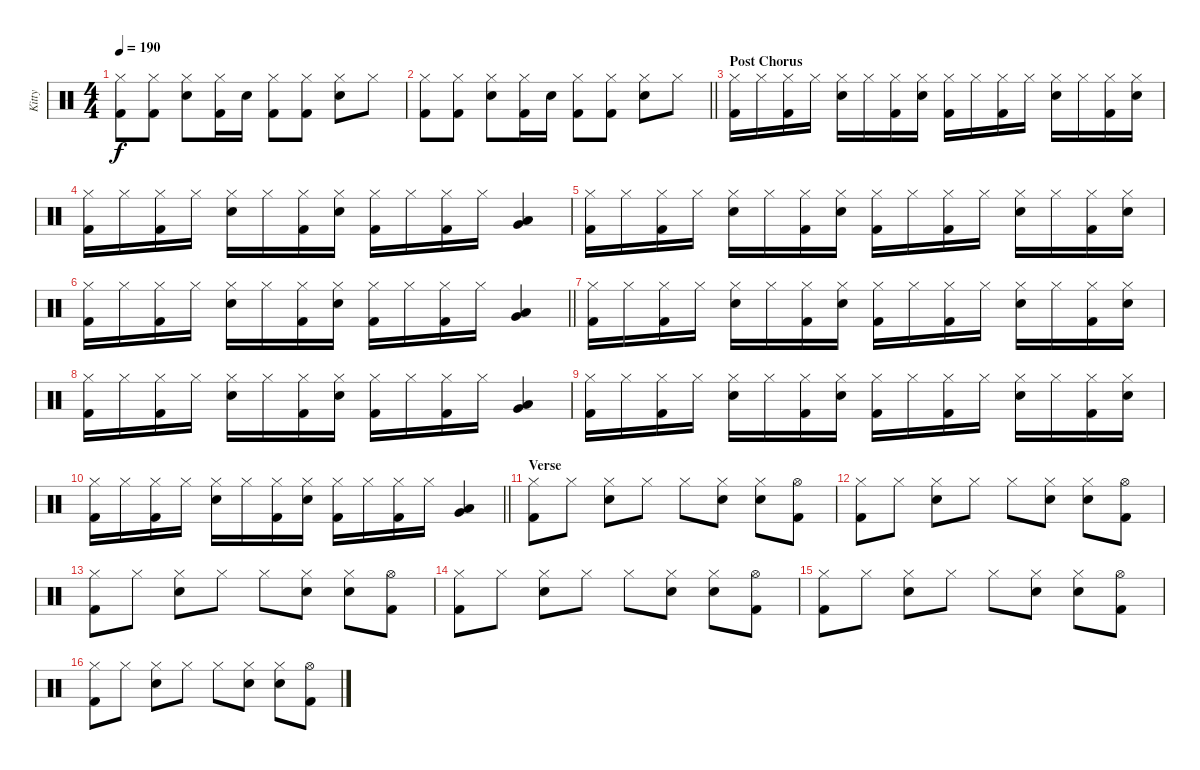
\track ("Kitty" "Kitty") {instrument percussion}
\staff {score}
\articulation defaults
\ts (4 4)
\tempo 190
\clef neutral
\ks c
("Hi-Hat (closed)" "Kick (hit) 2").8{dy f} ("Hi-Hat (closed)" "Kick (hit) 2").8 ("Hi-Hat (closed)" "Snare (hit) 2").8 ("Hi-Hat (closed)" "Kick (hit) 2").16 "Snare (hit) 2".16 ("Hi-Hat (closed)" "Kick (hit) 2").8 ("Hi-Hat (closed)" "Kick (hit) 2").8 ("Hi-Hat (closed)" "Snare (hit) 2").8 "Hi-Hat (closed)".8 |
\barLineRight lightlight
("Hi-Hat (closed)" "Kick (hit) 2").8 ("Hi-Hat (closed)" "Kick (hit) 2").8 ("Hi-Hat (closed)" "Snare (hit) 2").8 ("Hi-Hat (closed)" "Kick (hit) 2").16 "Snare (hit) 2".16 ("Hi-Hat (closed)" "Kick (hit) 2").8 ("Hi-Hat (closed)" "Kick (hit) 2").8 ("Hi-Hat (closed)" "Snare (hit) 2").8 "Hi-Hat (closed)".8 |
\section ("" "Post Chorus")
("Hi-Hat (closed)" "Kick (hit) 2").16 "Hi-Hat (closed)".16 ("Hi-Hat (closed)" "Kick (hit) 2").16 "Hi-Hat (closed)".16 ("Hi-Hat (closed)" "Snare (hit) 2").16 "Hi-Hat (closed)".16 ("Hi-Hat (closed)" "Kick (hit) 2").16 ("Hi-Hat (closed)" "Snare (hit) 2").16 ("Hi-Hat (closed)" "Kick (hit) 2").16 "Hi-Hat (closed)".16 ("Hi-Hat (closed)" "Kick (hit) 2").16 "Hi-Hat (closed)".16 ("Hi-Hat (closed)" "Snare (hit) 2").16 "Hi-Hat (closed)".16 ("Hi-Hat (closed)" "Kick (hit) 2").16 ("Hi-Hat (closed)" "Snare (hit) 2").16 |
("Hi-Hat (closed)" "Kick (hit) 2").16 "Hi-Hat (closed)".16 ("Hi-Hat (closed)" "Kick (hit) 2").16 "Hi-Hat (closed)".16 ("Hi-Hat (closed)" "Snare (hit) 2").16 "Hi-Hat (closed)".16 ("Hi-Hat (closed)" "Kick (hit) 2").16 ("Hi-Hat (closed)" "Snare (hit) 2").16 ("Hi-Hat (closed)" "Kick (hit) 2").16 "Hi-Hat (closed)".16 ("Hi-Hat (closed)" "Kick (hit) 2").16 "Hi-Hat (closed)".16 ("Very Low Tom (hit)" "Low Floor Tom (hit)").4 |
("Hi-Hat (closed)" "Kick (hit) 2").16 "Hi-Hat (closed)".16 ("Hi-Hat (closed)" "Kick (hit) 2").16 "Hi-Hat (closed)".16 ("Hi-Hat (closed)" "Snare (hit) 2").16 "Hi-Hat (closed)".16 ("Hi-Hat (closed)" "Kick (hit) 2").16 ("Hi-Hat (closed)" "Snare (hit) 2").16 ("Hi-Hat (closed)" "Kick (hit) 2").16 "Hi-Hat (closed)".16 ("Hi-Hat (closed)" "Kick (hit) 2").16 "Hi-Hat (closed)".16 ("Hi-Hat (closed)" "Snare (hit) 2").16 "Hi-Hat (closed)".16 ("Hi-Hat (closed)" "Kick (hit) 2").16 ("Hi-Hat (closed)" "Snare (hit) 2").16 |
\barLineRight lightlight
("Hi-Hat (closed)" "Kick (hit) 2").16 "Hi-Hat (closed)".16 ("Hi-Hat (closed)" "Kick (hit) 2").16 "Hi-Hat (closed)".16 ("Hi-Hat (closed)" "Snare (hit) 2").16 "Hi-Hat (closed)".16 ("Hi-Hat (closed)" "Kick (hit) 2").16 ("Hi-Hat (closed)" "Snare (hit) 2").16 ("Hi-Hat (closed)" "Kick (hit) 2").16 "Hi-Hat (closed)".16 ("Hi-Hat (closed)" "Kick (hit) 2").16 "Hi-Hat (closed)".16 ("Very Low Tom (hit)" "Low Floor Tom (hit)").4 |
("Hi-Hat (closed)" "Kick (hit) 2").16 "Hi-Hat (closed)".16 ("Hi-Hat (closed)" "Kick (hit) 2").16 "Hi-Hat (closed)".16 ("Hi-Hat (closed)" "Snare (hit) 2").16 "Hi-Hat (closed)".16 ("Hi-Hat (closed)" "Kick (hit) 2").16 ("Hi-Hat (closed)" "Snare (hit) 2").16 ("Hi-Hat (closed)" "Kick (hit) 2").16 "Hi-Hat (closed)".16 ("Hi-Hat (closed)" "Kick (hit) 2").16 "Hi-Hat (closed)".16 ("Hi-Hat (closed)" "Snare (hit) 2").16 "Hi-Hat (closed)".16 ("Hi-Hat (closed)" "Kick (hit) 2").16 ("Hi-Hat (closed)" "Snare (hit) 2").16 |
("Hi-Hat (closed)" "Kick (hit) 2").16 "Hi-Hat (closed)".16 ("Hi-Hat (closed)" "Kick (hit) 2").16 "Hi-Hat (closed)".16 ("Hi-Hat (closed)" "Snare (hit) 2").16 "Hi-Hat (closed)".16 ("Hi-Hat (closed)" "Kick (hit) 2").16 ("Hi-Hat (closed)" "Snare (hit) 2").16 ("Hi-Hat (closed)" "Kick (hit) 2").16 "Hi-Hat (closed)".16 ("Hi-Hat (closed)" "Kick (hit) 2").16 "Hi-Hat (closed)".16 ("Very Low Tom (hit)" "Low Floor Tom (hit)").4 |
("Hi-Hat (closed)" "Kick (hit) 2").16 "Hi-Hat (closed)".16 ("Hi-Hat (closed)" "Kick (hit) 2").16 "Hi-Hat (closed)".16 ("Hi-Hat (closed)" "Snare (hit) 2").16 "Hi-Hat (closed)".16 ("Hi-Hat (closed)" "Kick (hit) 2").16 ("Hi-Hat (closed)" "Snare (hit) 2").16 ("Hi-Hat (closed)" "Kick (hit) 2").16 "Hi-Hat (closed)".16 ("Hi-Hat (closed)" "Kick (hit) 2").16 "Hi-Hat (closed)".16 ("Hi-Hat (closed)" "Snare (hit) 2").16 "Hi-Hat (closed)".16 ("Hi-Hat (closed)" "Kick (hit) 2").16 ("Hi-Hat (closed)" "Snare (hit) 2").16 |
\barLineRight lightlight
("Hi-Hat (closed)" "Kick (hit) 2").16 "Hi-Hat (closed)".16 ("Hi-Hat (closed)" "Kick (hit) 2").16 "Hi-Hat (closed)".16 ("Hi-Hat (closed)" "Snare (hit) 2").16 "Hi-Hat (closed)".16 ("Hi-Hat (closed)" "Kick (hit) 2").16 ("Hi-Hat (closed)" "Snare (hit) 2").16 ("Hi-Hat (closed)" "Kick (hit) 2").16 "Hi-Hat (closed)".16 ("Hi-Hat (closed)" "Kick (hit) 2").16 "Hi-Hat (closed)".16 ("Very Low Tom (hit)" "Low Floor Tom (hit)").4 |
\section ("" "Verse")
("Hi-Hat (closed)" "Kick (hit) 2").8 "Hi-Hat (closed)".8 ("Hi-Hat (closed)" "Snare (hit) 2").8 "Hi-Hat (closed)".8 "Hi-Hat (closed)".8 ("Hi-Hat (closed)" "Snare (hit) 2").8 ("Hi-Hat (closed)" "Snare (hit) 2").8 ("Hi-Hat (open)" "Kick (hit) 2").8 |
("Hi-Hat (closed)" "Kick (hit) 2").8 "Hi-Hat (closed)".8 ("Hi-Hat (closed)" "Snare (hit) 2").8 "Hi-Hat (closed)".8 "Hi-Hat (closed)".8 ("Hi-Hat (closed)" "Snare (hit) 2").8 ("Hi-Hat (closed)" "Snare (hit) 2").8 ("Hi-Hat (open)" "Kick (hit) 2").8 |
("Hi-Hat (closed)" "Kick (hit) 2").8 "Hi-Hat (closed)".8 ("Hi-Hat (closed)" "Snare (hit) 2").8 "Hi-Hat (closed)".8 "Hi-Hat (closed)".8 ("Hi-Hat (closed)" "Snare (hit) 2").8 ("Hi-Hat (closed)" "Snare (hit) 2").8 ("Hi-Hat (open)" "Kick (hit) 2").8 |
("Hi-Hat (closed)" "Kick (hit) 2").8 "Hi-Hat (closed)".8 ("Hi-Hat (closed)" "Snare (hit) 2").8 "Hi-Hat (closed)".8 "Hi-Hat (closed)".8 ("Hi-Hat (closed)" "Snare (hit) 2").8 ("Hi-Hat (closed)" "Snare (hit) 2").8 ("Hi-Hat (open)" "Kick (hit) 2").8 |
("Hi-Hat (closed)" "Kick (hit) 2").8 "Hi-Hat (closed)".8 ("Hi-Hat (closed)" "Snare (hit) 2").8 "Hi-Hat (closed)".8 "Hi-Hat (closed)".8 ("Hi-Hat (closed)" "Snare (hit) 2").8 ("Hi-Hat (closed)" "Snare (hit) 2").8 ("Hi-Hat (open)" "Kick (hit) 2").8 |
("Hi-Hat (closed)" "Kick (hit) 2").8 "Hi-Hat (closed)".8 ("Hi-Hat (closed)" "Snare (hit) 2").8 "Hi-Hat (closed)".8 "Hi-Hat (closed)".8 ("Hi-Hat (closed)" "Snare (hit) 2").8 ("Hi-Hat (closed)" "Snare (hit) 2").8 ("Hi-Hat (open)" "Kick (hit) 2").8
